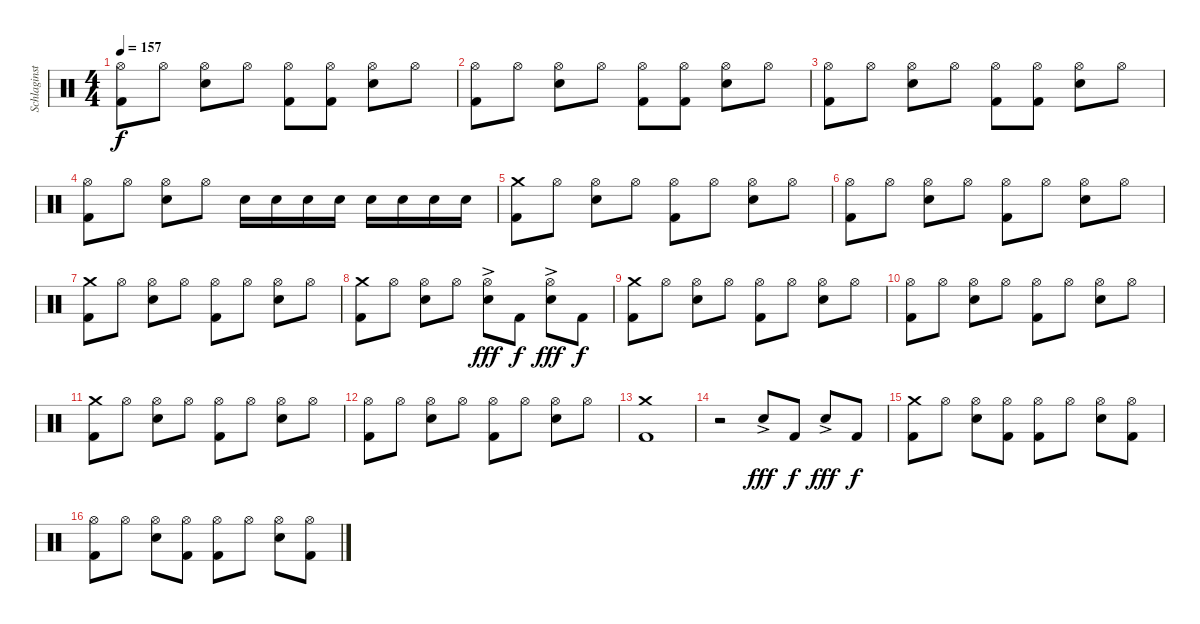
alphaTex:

\track ("Schlaginstrumente - Auswahl" "Schlaginst") {instrument percussion}
\staff {score}
\articulation defaults
\ts (4 4)
\tempo 157
\clef neutral
\ks c
("Hi-Hat (open)" "Kick (hit) 2").8{dy f} "Hi-Hat (open)".8 ("Hi-Hat (open)" "Electric Snare (hit)").8 "Hi-Hat (open)".8 ("Hi-Hat (open)" "Kick (hit) 2").8 ("Hi-Hat (open)" "Kick (hit) 2").8 ("Hi-Hat (open)" "Electric Snare (hit)").8 "Hi-Hat (open)".8 |
("Hi-Hat (open)" "Kick (hit) 2").8 "Hi-Hat (open)".8 ("Hi-Hat (open)" "Electric Snare (hit)").8 "Hi-Hat (open)".8 ("Hi-Hat (open)" "Kick (hit) 2").8 ("Hi-Hat (open)" "Kick (hit) 2").8 ("Hi-Hat (open)" "Electric Snare (hit)").8 "Hi-Hat (open)".8 |
("Hi-Hat (open)" "Kick (hit) 2").8 "Hi-Hat (open)".8 ("Hi-Hat (open)" "Electric Snare (hit)").8 "Hi-Hat (open)".8 ("Hi-Hat (open)" "Kick (hit) 2").8 ("Hi-Hat (open)" "Kick (hit) 2").8 ("Hi-Hat (open)" "Electric Snare (hit)").8 "Hi-Hat (open)".8 |
("Hi-Hat (open)" "Kick (hit) 2").8 "Hi-Hat (open)".8 ("Hi-Hat (open)" "Electric Snare (hit)").8 "Hi-Hat (open)".8 "Electric Snare (hit)".16 "Electric Snare (hit)".16 "Electric Snare (hit)".16 "Electric Snare (hit)".16 "Electric Snare (hit)".16 "Electric Snare (hit)".16 "Electric Snare (hit)".16 "Electric Snare (hit)".16 |
("Crash medium (hit)" "Kick (hit) 2").8 "Hi-Hat (open)".8 ("Hi-Hat (open)" "Electric Snare (hit)").8 "Hi-Hat (open)".8 ("Hi-Hat (open)" "Kick (hit) 2").8 "Hi-Hat (open)".8 ("Hi-Hat (open)" "Electric Snare (hit)").8 "Hi-Hat (open)".8 |
("Hi-Hat (open)" "Kick (hit) 2").8 "Hi-Hat (open)".8 ("Hi-Hat (open)" "Electric Snare (hit)").8 "Hi-Hat (open)".8 ("Hi-Hat (open)" "Kick (hit) 2").8 "Hi-Hat (open)".8 ("Hi-Hat (open)" "Electric Snare (hit)").8 "Hi-Hat (open)".8 |
("Crash medium (hit)" "Kick (hit) 2").8 "Hi-Hat (open)".8 ("Hi-Hat (open)" "Electric Snare (hit)").8 "Hi-Hat (open)".8 ("Hi-Hat (open)" "Kick (hit) 2").8 "Hi-Hat (open)".8 ("Hi-Hat (open)" "Electric Snare (hit)").8 "Hi-Hat (open)".8 |
("Crash medium (hit)" "Kick (hit) 2").8 "Hi-Hat (open)".8 ("Hi-Hat (open)" "Electric Snare (hit)").8 "Hi-Hat (open)".8 ("Hi-Hat (open)" "Electric Snare (hit)"{ac}).8{dy fff} "Kick (hit) 2".8{dy f} ("Hi-Hat (open)" "Electric Snare (hit)"{ac}).8{dy fff} "Kick (hit) 2".8{dy f} |
("Crash medium (hit)" "Kick (hit) 2").8 "Hi-Hat (open)".8 ("Hi-Hat (open)" "Electric Snare (hit)").8 "Hi-Hat (open)".8 ("Hi-Hat (open)" "Kick (hit) 2").8 "Hi-Hat (open)".8 ("Hi-Hat (open)" "Electric Snare (hit)").8 "Hi-Hat (open)".8 |
("Hi-Hat (open)" "Kick (hit) 2").8 "Hi-Hat (open)".8 ("Hi-Hat (open)" "Electric Snare (hit)").8 "Hi-Hat (open)".8 ("Hi-Hat (open)" "Kick (hit) 2").8 "Hi-Hat (open)".8 ("Hi-Hat (open)" "Electric Snare (hit)").8 "Hi-Hat (open)".8 |
("Crash medium (hit)" "Kick (hit) 2").8 "Hi-Hat (open)".8 ("Hi-Hat (open)" "Electric Snare (hit)").8 "Hi-Hat (open)".8 ("Hi-Hat (open)" "Kick (hit) 2").8 "Hi-Hat (open)".8 ("Hi-Hat (open)" "Electric Snare (hit)").8 "Hi-Hat (open)".8 |
("Hi-Hat (open)" "Kick (hit) 2").8 "Hi-Hat (open)".8 ("Hi-Hat (open)" "Electric Snare (hit)").8 "Hi-Hat (open)".8 ("Hi-Hat (open)" "Kick (hit) 2").8 "Hi-Hat (open)".8 ("Hi-Hat (open)" "Electric Snare (hit)").8 "Hi-Hat (open)".8 |
("Crash medium (hit)" "Kick (hit) 2").1 |
r.2 "Electric Snare (hit)"{ac}.8{dy fff} "Kick (hit) 2".8{dy f} "Electric Snare (hit)"{ac}.8{dy fff} "Kick (hit) 2".8{dy f} |
("Crash medium (hit)" "Kick (hit) 2").8 "Hi-Hat (open)".8 ("Hi-Hat (open)" "Electric Snare (hit)").8 ("Hi-Hat (open)" "Kick (hit) 2").8 ("Hi-Hat (open)" "Kick (hit) 2").8 "Hi-Hat (open)".8 ("Hi-Hat (open)" "Electric Snare (hit)").8 ("Hi-Hat (open)" "Kick (hit) 2").8 |
("Hi-Hat (open)" "Kick (hit) 2").8 "Hi-Hat (open)".8 ("Hi-Hat (open)" "Electric Snare (hit)").8 ("Hi-Hat (open)" "Kick (hit) 2").8 ("Hi-Hat (open)" "Kick (hit) 2").8 "Hi-Hat (open)".8 ("Hi-Hat (open)" "Electric Snare (hit)").8 ("Hi-Hat (open)" "Kick (hit) 2").8
